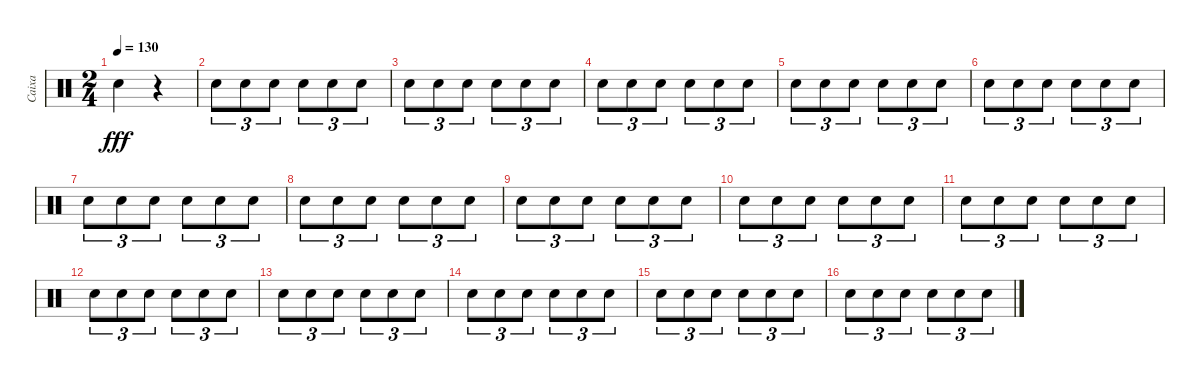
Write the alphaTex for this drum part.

\track ("Caixa" "Caixa") {instrument percussion}
\staff {score}
\articulation defaults
\ts (2 4)
\tempo 130
\clef neutral
\ks c "Electric Snare (hit)".4{dy fff}
r.4 |
"Electric Snare (hit)".8{tu (3 2)} "Electric Snare (hit)".8{tu (3 2)} "Electric Snare (hit)".8{tu (3 2)} "Electric Snare (hit)".8{tu (3 2)} "Electric Snare (hit)".8{tu (3 2)} "Electric Snare (hit)".8{tu (3 2)} |
"Electric Snare (hit)".8{tu (3 2)} "Electric Snare (hit)".8{tu (3 2)} "Electric Snare (hit)".8{tu (3 2)} "Electric Snare (hit)".8{tu (3 2)} "Electric Snare (hit)".8{tu (3 2)} "Electric Snare (hit)".8{tu (3 2)} |
"Electric Snare (hit)".8{tu (3 2)} "Electric Snare (hit)".8{tu (3 2)} "Electric Snare (hit)".8{tu (3 2)} "Electric Snare (hit)".8{tu (3 2)} "Electric Snare (hit)".8{tu (3 2)} "Electric Snare (hit)".8{tu (3 2)} |
"Electric Snare (hit)".8{tu (3 2)} "Electric Snare (hit)".8{tu (3 2)} "Electric Snare (hit)".8{tu (3 2)} "Electric Snare (hit)".8{tu (3 2)} "Electric Snare (hit)".8{tu (3 2)} "Electric Snare (hit)".8{tu (3 2)} |
"Electric Snare (hit)".8{tu (3 2)} "Electric Snare (hit)".8{tu (3 2)} "Electric Snare (hit)".8{tu (3 2)} "Electric Snare (hit)".8{tu (3 2)} "Electric Snare (hit)".8{tu (3 2)} "Electric Snare (hit)".8{tu (3 2)} |
"Electric Snare (hit)".8{tu (3 2)} "Electric Snare (hit)".8{tu (3 2)} "Electric Snare (hit)".8{tu (3 2)} "Electric Snare (hit)".8{tu (3 2)} "Electric Snare (hit)".8{tu (3 2)} "Electric Snare (hit)".8{tu (3 2)} |
"Electric Snare (hit)".8{tu (3 2)} "Electric Snare (hit)".8{tu (3 2)} "Electric Snare (hit)".8{tu (3 2)} "Electric Snare (hit)".8{tu (3 2)} "Electric Snare (hit)".8{tu (3 2)} "Electric Snare (hit)".8{tu (3 2)} |
"Electric Snare (hit)".8{tu (3 2)} "Electric Snare (hit)".8{tu (3 2)} "Electric Snare (hit)".8{tu (3 2)} "Electric Snare (hit)".8{tu (3 2)} "Electric Snare (hit)".8{tu (3 2)} "Electric Snare (hit)".8{tu (3 2)} |
"Electric Snare (hit)".8{tu (3 2)} "Electric Snare (hit)".8{tu (3 2)} "Electric Snare (hit)".8{tu (3 2)} "Electric Snare (hit)".8{tu (3 2)} "Electric Snare (hit)".8{tu (3 2)} "Electric Snare (hit)".8{tu (3 2)} |
"Electric Snare (hit)".8{tu (3 2)} "Electric Snare (hit)".8{tu (3 2)} "Electric Snare (hit)".8{tu (3 2)} "Electric Snare (hit)".8{tu (3 2)} "Electric Snare (hit)".8{tu (3 2)} "Electric Snare (hit)".8{tu (3 2)} |
"Electric Snare (hit)".8{tu (3 2)} "Electric Snare (hit)".8{tu (3 2)} "Electric Snare (hit)".8{tu (3 2)} "Electric Snare (hit)".8{tu (3 2)} "Electric Snare (hit)".8{tu (3 2)} "Electric Snare (hit)".8{tu (3 2)} |
"Electric Snare (hit)".8{tu (3 2)} "Electric Snare (hit)".8{tu (3 2)} "Electric Snare (hit)".8{tu (3 2)} "Electric Snare (hit)".8{tu (3 2)} "Electric Snare (hit)".8{tu (3 2)} "Electric Snare (hit)".8{tu (3 2)} |
"Electric Snare (hit)".8{tu (3 2)} "Electric Snare (hit)".8{tu (3 2)} "Electric Snare (hit)".8{tu (3 2)} "Electric Snare (hit)".8{tu (3 2)} "Electric Snare (hit)".8{tu (3 2)} "Electric Snare (hit)".8{tu (3 2)} |
"Electric Snare (hit)".8{tu (3 2)} "Electric Snare (hit)".8{tu (3 2)} "Electric Snare (hit)".8{tu (3 2)} "Electric Snare (hit)".8{tu (3 2)} "Electric Snare (hit)".8{tu (3 2)} "Electric Snare (hit)".8{tu (3 2)} |
"Electric Snare (hit)".8{tu (3 2)} "Electric Snare (hit)".8{tu (3 2)} "Electric Snare (hit)".8{tu (3 2)} "Electric Snare (hit)".8{tu (3 2)} "Electric Snare (hit)".8{tu (3 2)} "Electric Snare (hit)".8{tu (3 2)}
